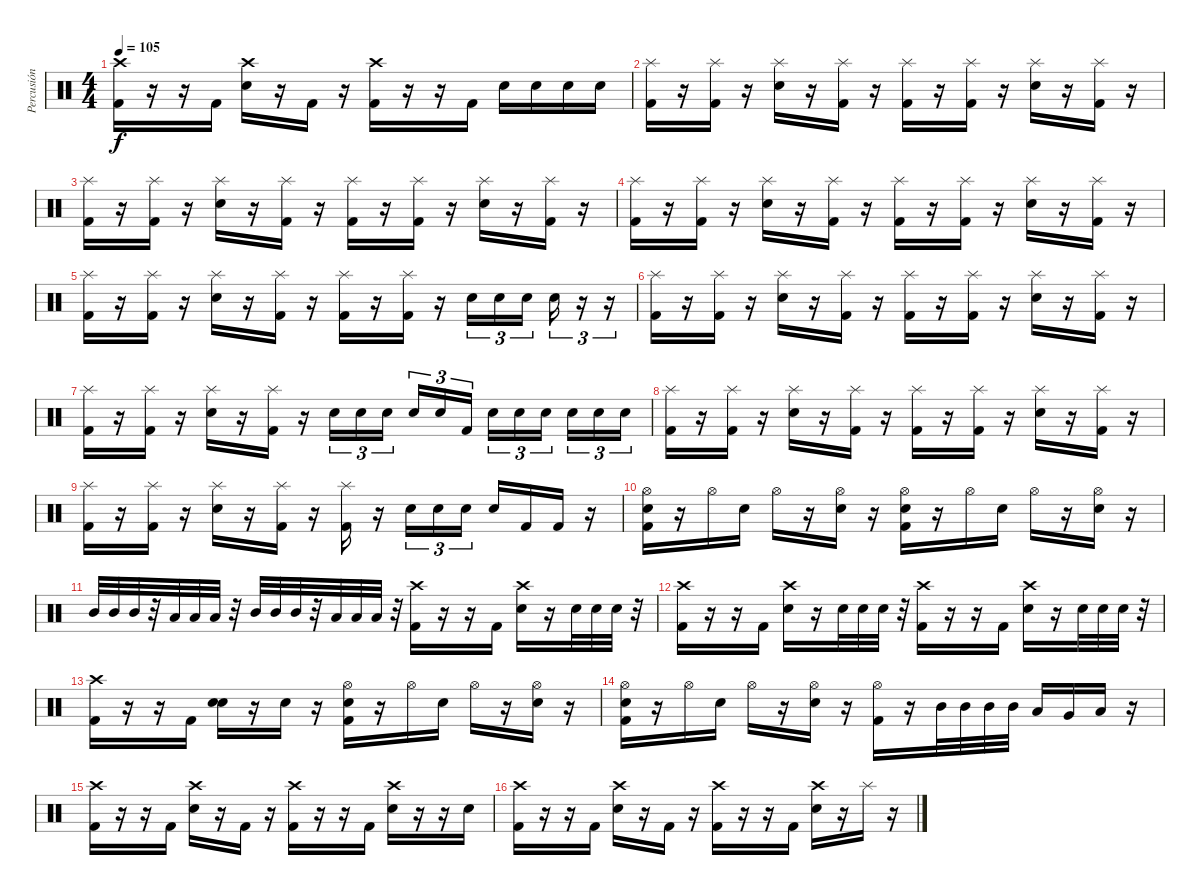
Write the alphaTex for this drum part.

\track ("Percusión" "Percusión") {instrument percussion}
\staff {score}
\articulation defaults
\ts (4 4)
\tempo 105
\clef neutral
\ks c
("Crash high (hit)" "Kick (hit) 2").16{dy f} r.16 r.16 "Kick (hit) 2".16 ("Crash high (hit)" "Electric Snare (hit)").16 r.16 "Kick (hit) 2".16 r.16 ("Crash high (hit)" "Kick (hit) 2").16 r.16 r.16 "Kick (hit) 2".16 "Electric Snare (hit)".16 "Electric Snare (hit)".16 "Electric Snare (hit)".16 "Electric Snare (hit)".16 |
("Splash (hit)" "Kick (hit) 2").16 r.16 ("Splash (hit)" "Kick (hit) 2").16 r.16 ("Splash (hit)" "Electric Snare (hit)").16 r.16 ("Splash (hit)" "Kick (hit) 2").16 r.16 ("Splash (hit)" "Kick (hit) 2").16 r.16 ("Splash (hit)" "Kick (hit) 2").16 r.16 ("Splash (hit)" "Electric Snare (hit)").16 r.16 ("Splash (hit)" "Kick (hit) 2").16 r.16 |
("Splash (hit)" "Kick (hit) 2").16 r.16 ("Splash (hit)" "Kick (hit) 2").16 r.16 ("Splash (hit)" "Electric Snare (hit)").16 r.16 ("Splash (hit)" "Kick (hit) 2").16 r.16 ("Splash (hit)" "Kick (hit) 2").16 r.16 ("Splash (hit)" "Kick (hit) 2").16 r.16 ("Splash (hit)" "Electric Snare (hit)").16 r.16 ("Splash (hit)" "Kick (hit) 2").16 r.16 |
("Splash (hit)" "Kick (hit) 2").16 r.16 ("Splash (hit)" "Kick (hit) 2").16 r.16 ("Splash (hit)" "Electric Snare (hit)").16 r.16 ("Splash (hit)" "Kick (hit) 2").16 r.16 ("Splash (hit)" "Kick (hit) 2").16 r.16 ("Splash (hit)" "Kick (hit) 2").16 r.16 ("Splash (hit)" "Electric Snare (hit)").16 r.16 ("Splash (hit)" "Kick (hit) 2").16 r.16 |
("Splash (hit)" "Kick (hit) 2").16 r.16 ("Splash (hit)" "Kick (hit) 2").16 r.16 ("Splash (hit)" "Electric Snare (hit)").16 r.16 ("Splash (hit)" "Kick (hit) 2").16 r.16 ("Splash (hit)" "Kick (hit) 2").16 r.16 ("Splash (hit)" "Kick (hit) 2").16 r.16 "Electric Snare (hit)".16{tu (3 2)} "Electric Snare (hit)".16{tu (3 2)} "Electric Snare (hit)".16{tu (3 2) beam splitsecondary} "Electric Snare (hit)".16{tu (3 2)} r.16{tu (3 2)} r.16{tu (3 2)} |
("Splash (hit)" "Kick (hit) 2").16 r.16 ("Splash (hit)" "Kick (hit) 2").16 r.16 ("Splash (hit)" "Electric Snare (hit)").16 r.16 ("Splash (hit)" "Kick (hit) 2").16 r.16 ("Splash (hit)" "Kick (hit) 2").16 r.16 ("Splash (hit)" "Kick (hit) 2").16 r.16 ("Splash (hit)" "Electric Snare (hit)").16 r.16 ("Splash (hit)" "Kick (hit) 2").16 r.16 |
("Splash (hit)" "Kick (hit) 2").16 r.16 ("Splash (hit)" "Kick (hit) 2").16 r.16 ("Splash (hit)" "Electric Snare (hit)").16 r.16 ("Splash (hit)" "Kick (hit) 2").16 r.16 "Electric Snare (hit)".16{tu (3 2)} "Electric Snare (hit)".16{tu (3 2)} "Electric Snare (hit)".16{tu (3 2) beam splitsecondary} "Electric Snare (hit)".16{tu (3 2)} "Electric Snare (hit)".16{tu (3 2)} "Kick (hit) 2".16{tu (3 2)} "Electric Snare (hit)".16{tu (3 2)} "Electric Snare (hit)".16{tu (3 2)} "Electric Snare (hit)".16{tu (3 2) beam splitsecondary} "Electric Snare (hit)".16{tu (3 2)} "Electric Snare (hit)".16{tu (3 2)} "Electric Snare (hit)".16{tu (3 2)} |
("Splash (hit)" "Kick (hit) 2").16 r.16 ("Splash (hit)" "Kick (hit) 2").16 r.16 ("Splash (hit)" "Electric Snare (hit)").16 r.16 ("Splash (hit)" "Kick (hit) 2").16 r.16 ("Splash (hit)" "Kick (hit) 2").16 r.16 ("Splash (hit)" "Kick (hit) 2").16 r.16 ("Splash (hit)" "Electric Snare (hit)").16 r.16 ("Splash (hit)" "Kick (hit) 2").16 r.16 |
("Splash (hit)" "Kick (hit) 2").16 r.16 ("Splash (hit)" "Kick (hit) 2").16 r.16 ("Splash (hit)" "Electric Snare (hit)").16 r.16 ("Splash (hit)" "Kick (hit) 2").16 r.16 ("Splash (hit)" "Kick (hit) 2").16 r.16 "Electric Snare (hit)".16{tu (3 2)} "Electric Snare (hit)".16{tu (3 2)} "Electric Snare (hit)".16{tu (3 2)} "Electric Snare (hit)".16 "Kick (hit) 2".16 "Kick (hit) 2".16 r.16 |
("Hi-Hat (open)" "Electric Snare (hit)" "Kick (hit) 2").16 r.16 "Hi-Hat (open)".16 "Electric Snare (hit)".16 "Hi-Hat (open)".16 r.16 ("Hi-Hat (open)" "Electric Snare (hit)").16 r.16 ("Hi-Hat (open)" "Electric Snare (hit)" "Kick (hit) 2").16 r.16 "Hi-Hat (open)".16 "Electric Snare (hit)".16 "Hi-Hat (open)".16 r.16 ("Hi-Hat (open)" "Electric Snare (hit)").16 r.16 |
"Mid Tom (hit)".32 "Mid Tom (hit)".32 "Mid Tom (hit)".32 r.32 "Low Tom (hit)".32 "Low Tom (hit)".32 "Low Tom (hit)".32 r.32 "Mid Tom (hit)".32 "Mid Tom (hit)".32 "Mid Tom (hit)".32 r.32 "Low Tom (hit)".32 "Low Tom (hit)".32 "Low Tom (hit)".32 r.32 ("Crash high (hit)" "Kick (hit) 2").16 r.16 r.16 "Kick (hit) 2".16 ("Crash high (hit)" "Electric Snare (hit)").16 r.16 "Electric Snare (hit)".32 "Electric Snare (hit)".32 "Electric Snare (hit)".32 r.32 |
("Crash high (hit)" "Kick (hit) 2").16 r.16 r.16 "Kick (hit) 2".16 ("Crash high (hit)" "Electric Snare (hit)").16 r.16 "Electric Snare (hit)".32 "Electric Snare (hit)".32 "Electric Snare (hit)".32 r.32 ("Crash high (hit)" "Kick (hit) 2").16 r.16 r.16 "Kick (hit) 2".16 ("Crash high (hit)" "Electric Snare (hit)").16 r.16 "Electric Snare (hit)".32 "Electric Snare (hit)".32 "Electric Snare (hit)".32 r.32 |
("Crash high (hit)" "Kick (hit) 2").16 r.16 r.16 "Kick (hit) 2".16 ("Electric Snare (hit)" "Electric Snare (hit)").16 r.16 "Electric Snare (hit)".16 r.16 ("Hi-Hat (open)" "Electric Snare (hit)" "Kick (hit) 2").16 r.16 "Hi-Hat (open)".16 "Electric Snare (hit)".16 "Hi-Hat (open)".16 r.16 ("Hi-Hat (open)" "Electric Snare (hit)").16 r.16 |
("Hi-Hat (open)" "Electric Snare (hit)" "Kick (hit) 2").16 r.16 "Hi-Hat (open)".16 "Electric Snare (hit)".16 "Hi-Hat (open)".16 r.16 ("Hi-Hat (open)" "Electric Snare (hit)").16 r.16 ("Hi-Hat (open)" "Kick (hit) 2").16 r.16 "Mid Tom (hit)".32 "Mid Tom (hit)".32 "Mid Tom (hit)".32 "Mid Tom (hit)".32 "Low Tom (hit)".16 "Very Low Tom (hit)".16 "Low Floor Tom (hit)".16 r.16 |
("Crash high (hit)" "Kick (hit) 2").16 r.16 r.16 "Kick (hit) 2".16 ("Crash high (hit)" "Electric Snare (hit)").16 r.16 "Kick (hit) 2".16 r.16 ("Crash high (hit)" "Kick (hit) 2").16 r.16 r.16 "Kick (hit) 2".16 ("Crash high (hit)" "Electric Snare (hit)").16 r.16 r.16 "Electric Snare (hit)".16 |
("Crash high (hit)" "Kick (hit) 2").16 r.16 r.16 "Kick (hit) 2".16 ("Crash high (hit)" "Electric Snare (hit)").16 r.16 "Kick (hit) 2".16 r.16 ("Crash high (hit)" "Kick (hit) 2").16 r.16 r.16 "Kick (hit) 2".16 ("Crash high (hit)" "Electric Snare (hit)").16 r.16 "Splash (hit)".16 r.16
